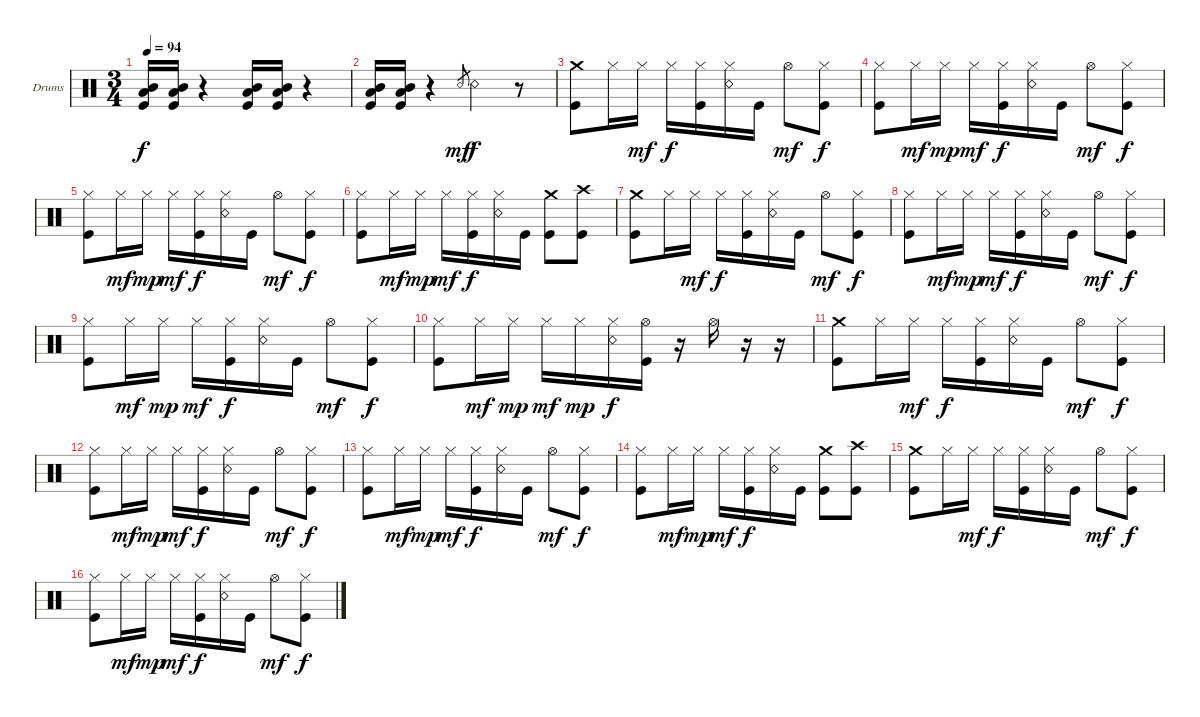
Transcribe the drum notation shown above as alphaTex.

\bracketExtendMode groupsimilarinstruments
\firstSystemTrackNameOrientation horizontal
\otherSystemsTrackNameOrientation horizontal
\track ("Drumkit" "Drums") {instrument percussion}
\staff {score}
\articulation defaults
\ts (3 4)
\tempo 94
\clef neutral
\ks c
("Kick (hit)" "Mid Tom (hit)" "Low Tom (hit)").16{dy f} ("Kick (hit)" "Mid Tom (hit)" "Low Tom (hit)").16 r.4 ("Kick (hit)" "Mid Tom (hit)" "Low Tom (hit)").16 ("Kick (hit)" "Mid Tom (hit)" "Low Tom (hit)").16 r.4 |
("Kick (hit)" "Mid Tom (hit)" "Low Tom (hit)").16 ("Kick (hit)" "Mid Tom (hit)" "Low Tom (hit)").16 r.4 "Snare (rim shot)".8{gr dy mf} "Snare (rim shot)".4{dy f} r.8 |
("Kick (hit)" "Crash medium (hit)").8 "Hi-Hat (closed)".16 "Hi-Hat (closed)".16{dy mf} "Hi-Hat (closed)".16{dy f} ("Kick (hit)" "Hi-Hat (closed)").16 ("Snare (rim shot)" "Hi-Hat (closed)").16 "Kick (hit)".16 "Hi-Hat (open)".8{dy mf} ("Kick (hit)" "Hi-Hat (closed)").8{dy f} |
("Kick (hit)" "Hi-Hat (closed)").8 "Hi-Hat (closed)".16{dy mf} "Hi-Hat (closed)".16{dy mp} "Hi-Hat (closed)".16{dy mf} ("Kick (hit)" "Hi-Hat (closed)").16{dy f} ("Snare (rim shot)" "Hi-Hat (closed)").16 "Kick (hit)".16 "Hi-Hat (open)".8{dy mf} ("Kick (hit)" "Hi-Hat (closed)").8{dy f} |
("Kick (hit)" "Hi-Hat (closed)").8 "Hi-Hat (closed)".16{dy mf} "Hi-Hat (closed)".16{dy mp} "Hi-Hat (closed)".16{dy mf} ("Kick (hit)" "Hi-Hat (closed)").16{dy f} ("Snare (rim shot)" "Hi-Hat (closed)").16 "Kick (hit)".16 "Hi-Hat (open)".8{dy mf} ("Kick (hit)" "Hi-Hat (closed)").8{dy f} |
("Kick (hit)" "Hi-Hat (closed)").8 "Hi-Hat (closed)".16{dy mf} "Hi-Hat (closed)".16{dy mp} "Hi-Hat (closed)".16{dy mf} ("Kick (hit)" "Hi-Hat (closed)").16{dy f} ("Snare (rim shot)" "Hi-Hat (closed)").16 "Kick (hit)".16 ("Kick (hit)" "Crash medium (hit)").8 ("Kick (hit)" "Crash high (hit)").8 |
("Kick (hit)" "Crash medium (hit)").8 "Hi-Hat (closed)".16 "Hi-Hat (closed)".16{dy mf} "Hi-Hat (closed)".16{dy f} ("Kick (hit)" "Hi-Hat (closed)").16 ("Snare (rim shot)" "Hi-Hat (closed)").16 "Kick (hit)".16 "Hi-Hat (open)".8{dy mf} ("Kick (hit)" "Hi-Hat (closed)").8{dy f} |
("Kick (hit)" "Hi-Hat (closed)").8 "Hi-Hat (closed)".16{dy mf} "Hi-Hat (closed)".16{dy mp} "Hi-Hat (closed)".16{dy mf} ("Kick (hit)" "Hi-Hat (closed)").16{dy f} ("Snare (rim shot)" "Hi-Hat (closed)").16 "Kick (hit)".16 "Hi-Hat (open)".8{dy mf} ("Kick (hit)" "Hi-Hat (closed)").8{dy f} |
("Kick (hit)" "Hi-Hat (closed)").8 "Hi-Hat (closed)".16{dy mf} "Hi-Hat (closed)".16{dy mp} "Hi-Hat (closed)".16{dy mf} ("Kick (hit)" "Hi-Hat (closed)").16{dy f} ("Snare (rim shot)" "Hi-Hat (closed)").16 "Kick (hit)".16 "Hi-Hat (open)".8{dy mf} ("Kick (hit)" "Hi-Hat (closed)").8{dy f} |
("Kick (hit)" "Hi-Hat (closed)").8 "Hi-Hat (closed)".16{dy mf} "Hi-Hat (closed)".16{dy mp} "Hi-Hat (closed)".16{dy mf} "Hi-Hat (closed)".16{dy mp} ("Snare (rim shot)" "Hi-Hat (closed)").16{dy f} ("Kick (hit)" "Hi-Hat (open)").16 r.16 "Hi-Hat (open)".16 r.16 r.16 |
("Kick (hit)" "Crash medium (hit)").8 "Hi-Hat (closed)".16 "Hi-Hat (closed)".16{dy mf} "Hi-Hat (closed)".16{dy f} ("Kick (hit)" "Hi-Hat (closed)").16 ("Snare (rim shot)" "Hi-Hat (closed)").16 "Kick (hit)".16 "Hi-Hat (open)".8{dy mf} ("Kick (hit)" "Hi-Hat (closed)").8{dy f} |
("Kick (hit)" "Hi-Hat (closed)").8 "Hi-Hat (closed)".16{dy mf} "Hi-Hat (closed)".16{dy mp} "Hi-Hat (closed)".16{dy mf} ("Kick (hit)" "Hi-Hat (closed)").16{dy f} ("Snare (rim shot)" "Hi-Hat (closed)").16 "Kick (hit)".16 "Hi-Hat (open)".8{dy mf} ("Kick (hit)" "Hi-Hat (closed)").8{dy f} |
("Kick (hit)" "Hi-Hat (closed)").8 "Hi-Hat (closed)".16{dy mf} "Hi-Hat (closed)".16{dy mp} "Hi-Hat (closed)".16{dy mf} ("Kick (hit)" "Hi-Hat (closed)").16{dy f} ("Snare (rim shot)" "Hi-Hat (closed)").16 "Kick (hit)".16 "Hi-Hat (open)".8{dy mf} ("Kick (hit)" "Hi-Hat (closed)").8{dy f} |
("Kick (hit)" "Hi-Hat (closed)").8 "Hi-Hat (closed)".16{dy mf} "Hi-Hat (closed)".16{dy mp} "Hi-Hat (closed)".16{dy mf} ("Kick (hit)" "Hi-Hat (closed)").16{dy f} ("Snare (rim shot)" "Hi-Hat (closed)").16 "Kick (hit)".16 ("Kick (hit)" "Crash medium (hit)").8 ("Kick (hit)" "Crash high (hit)").8 |
("Kick (hit)" "Crash medium (hit)").8 "Hi-Hat (closed)".16 "Hi-Hat (closed)".16{dy mf} "Hi-Hat (closed)".16{dy f} ("Kick (hit)" "Hi-Hat (closed)").16 ("Snare (rim shot)" "Hi-Hat (closed)").16 "Kick (hit)".16 "Hi-Hat (open)".8{dy mf} ("Kick (hit)" "Hi-Hat (closed)").8{dy f} |
("Kick (hit)" "Hi-Hat (closed)").8 "Hi-Hat (closed)".16{dy mf} "Hi-Hat (closed)".16{dy mp} "Hi-Hat (closed)".16{dy mf} ("Kick (hit)" "Hi-Hat (closed)").16{dy f} ("Snare (rim shot)" "Hi-Hat (closed)").16 "Kick (hit)".16 "Hi-Hat (open)".8{dy mf} ("Kick (hit)" "Hi-Hat (closed)").8{dy f}
